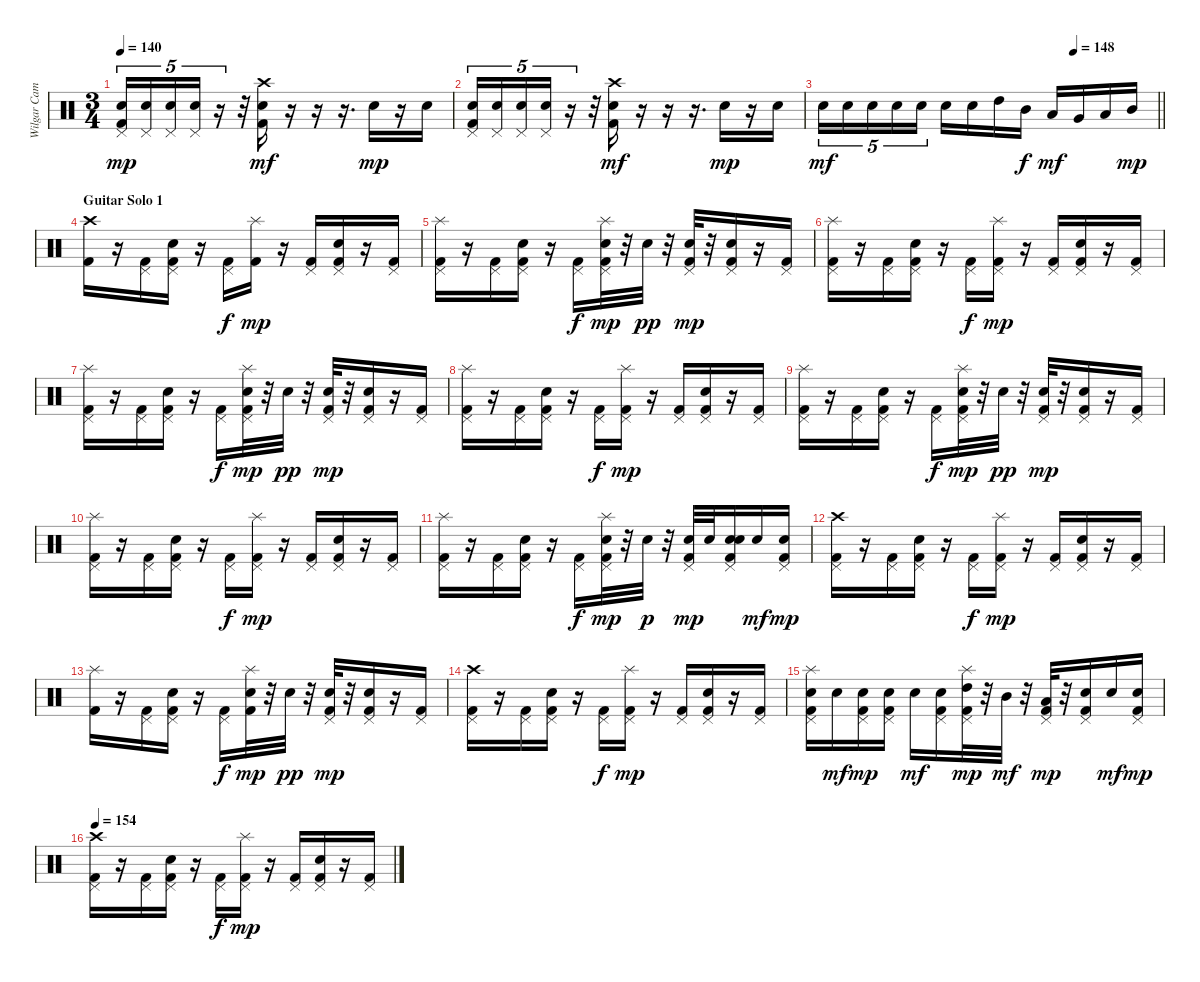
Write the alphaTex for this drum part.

\track ("Wilgar Campbell" "Wilgar Cam") {instrument percussion}
\staff {score}
\articulation defaults
\ts (3 4)
\tempo 140
\clef neutral
\ks c
("Snare (hit) 2" "Pedal Hi-Hat (hit)" "Kick (hit) 2").16{tu (5 4) dy mp} ("Snare (hit) 2" "Pedal Hi-Hat (hit)").16{tu (5 4)} ("Snare (hit) 2" "Pedal Hi-Hat (hit)").16{tu (5 4)} ("Snare (hit) 2" "Pedal Hi-Hat (hit)").16{tu (5 4)} r.16{tu (5 4)} r.32 ("Crash high (hit)" "Snare (hit) 2" "Kick (hit) 2").16{dy mf} r.16 r.16 r.16{d} "Electric Snare (hit)".16{dy mp} r.16 "Electric Snare (hit)".16 |
("Snare (hit) 2" "Pedal Hi-Hat (hit)" "Kick (hit) 2").16{tu (5 4)} ("Snare (hit) 2" "Pedal Hi-Hat (hit)").16{tu (5 4)} ("Snare (hit) 2" "Pedal Hi-Hat (hit)").16{tu (5 4)} ("Snare (hit) 2" "Pedal Hi-Hat (hit)").16{tu (5 4)} r.16{tu (5 4)} r.32 ("Crash high (hit)" "Snare (hit) 2" "Kick (hit) 2").16{dy mf} r.16 r.16 r.16{d} "Electric Snare (hit)".16{dy mp} r.16 "Electric Snare (hit)".16 |
\tempo (148 0.75)
\barLineRight lightlight "Snare (hit) 2".16{tu (5 4) dy mf} "Snare (hit) 2".16{tu (5 4)} "Snare (hit) 2".16{tu (5 4)} "Snare (hit) 2".16{tu (5 4)} "Snare (hit) 2".16{tu (5 4)} "Snare (hit) 2".16 "Snare (hit) 2".16 "High Tom (hit)".16 "Mid Tom (hit)".16{dy f} "Low Tom (hit)".16{dy mf} "Very Low Tom (hit)".16 "Low Floor Tom (hit)".16 "Mid Tom (hit)".16{dy mp}
|
\section ("" "Guitar Solo 1")
("Crash high (hit)" "Kick (hit) 2").16 r.16 ("Pedal Hi-Hat (hit)" "Kick (hit) 2").16 ("Snare (hit) 2" "Pedal Hi-Hat (hit)" "Kick (hit) 2").16 r.16 ("Pedal Hi-Hat (hit)" "Kick (hit) 2").16{dy f} ("Splash (hit)" "Kick (hit) 2").16{dy mp} r.16 ("Pedal Hi-Hat (hit)" "Kick (hit) 2").16 ("Snare (hit) 2" "Pedal Hi-Hat (hit)" "Kick (hit) 2").16 r.16 ("Pedal Hi-Hat (hit)" "Kick (hit) 2").16 |
("Splash (hit)" "Pedal Hi-Hat (hit)" "Kick (hit) 2").16 r.16 ("Pedal Hi-Hat (hit)" "Kick (hit) 2").16 ("Snare (hit) 2" "Pedal Hi-Hat (hit)" "Kick (hit) 2").16 r.16 ("Pedal Hi-Hat (hit)" "Kick (hit) 2").16{dy f} ("Splash (hit)" "Pedal Hi-Hat (hit)" "Electric Snare (hit)" "Kick (hit) 2").32{dy mp} r.32 "Electric Snare (hit)".32{dy pp} r.32 ("Pedal Hi-Hat (hit)" "Electric Snare (hit)" "Kick (hit) 2").32{dy mp} r.32 ("Snare (hit) 2" "Pedal Hi-Hat (hit)" "Kick (hit) 2").16 r.16 ("Pedal Hi-Hat (hit)" "Kick (hit) 2").16 |
("Splash (hit)" "Pedal Hi-Hat (hit)" "Kick (hit) 2").16 r.16 ("Pedal Hi-Hat (hit)" "Kick (hit) 2").16 ("Snare (hit) 2" "Pedal Hi-Hat (hit)" "Kick (hit) 2").16 r.16 ("Pedal Hi-Hat (hit)" "Kick (hit) 2").16{dy f} ("Splash (hit)" "Pedal Hi-Hat (hit)" "Kick (hit) 2").16{dy mp} r.16 ("Pedal Hi-Hat (hit)" "Kick (hit) 2").16 ("Snare (hit) 2" "Pedal Hi-Hat (hit)" "Kick (hit) 2").16 r.16 ("Pedal Hi-Hat (hit)" "Kick (hit) 2").16 |
("Splash (hit)" "Pedal Hi-Hat (hit)" "Kick (hit) 2").16 r.16 ("Pedal Hi-Hat (hit)" "Kick (hit) 2").16 ("Snare (hit) 2" "Pedal Hi-Hat (hit)" "Kick (hit) 2").16 r.16 ("Pedal Hi-Hat (hit)" "Kick (hit) 2").16{dy f} ("Splash (hit)" "Pedal Hi-Hat (hit)" "Electric Snare (hit)" "Kick (hit) 2").32{dy mp} r.32 "Electric Snare (hit)".32{dy pp} r.32 ("Pedal Hi-Hat (hit)" "Electric Snare (hit)" "Kick (hit) 2").32{dy mp} r.32 ("Snare (hit) 2" "Pedal Hi-Hat (hit)" "Kick (hit) 2").16 r.16 ("Pedal Hi-Hat (hit)" "Kick (hit) 2").16 |
("Splash (hit)" "Pedal Hi-Hat (hit)" "Kick (hit) 2").16 r.16 ("Pedal Hi-Hat (hit)" "Kick (hit) 2").16 ("Snare (hit) 2" "Pedal Hi-Hat (hit)" "Kick (hit) 2").16 r.16 ("Pedal Hi-Hat (hit)" "Kick (hit) 2").16{dy f} ("Splash (hit)" "Pedal Hi-Hat (hit)" "Kick (hit) 2").16{dy mp} r.16 ("Pedal Hi-Hat (hit)" "Kick (hit) 2").16 ("Snare (hit) 2" "Pedal Hi-Hat (hit)" "Kick (hit) 2").16 r.16 ("Pedal Hi-Hat (hit)" "Kick (hit) 2").16 |
("Splash (hit)" "Pedal Hi-Hat (hit)" "Kick (hit) 2").16 r.16 ("Pedal Hi-Hat (hit)" "Kick (hit) 2").16 ("Snare (hit) 2" "Pedal Hi-Hat (hit)" "Kick (hit) 2").16 r.16 ("Pedal Hi-Hat (hit)" "Kick (hit) 2").16{dy f} ("Splash (hit)" "Pedal Hi-Hat (hit)" "Electric Snare (hit)" "Kick (hit) 2").32{dy mp} r.32 "Electric Snare (hit)".32{dy pp} r.32 ("Pedal Hi-Hat (hit)" "Electric Snare (hit)" "Kick (hit) 2").32{dy mp} r.32 ("Snare (hit) 2" "Pedal Hi-Hat (hit)" "Kick (hit) 2").16 r.16 ("Pedal Hi-Hat (hit)" "Kick (hit) 2").16 |
("Splash (hit)" "Pedal Hi-Hat (hit)" "Kick (hit) 2").16 r.16 ("Pedal Hi-Hat (hit)" "Kick (hit) 2").16 ("Snare (hit) 2" "Pedal Hi-Hat (hit)" "Kick (hit) 2").16 r.16 ("Pedal Hi-Hat (hit)" "Kick (hit) 2").16{dy f} ("Splash (hit)" "Pedal Hi-Hat (hit)" "Kick (hit) 2").16{dy mp} r.16 ("Pedal Hi-Hat (hit)" "Kick (hit) 2").16 ("Snare (hit) 2" "Pedal Hi-Hat (hit)" "Kick (hit) 2").16 r.16 ("Pedal Hi-Hat (hit)" "Kick (hit) 2").16 |
("Splash (hit)" "Pedal Hi-Hat (hit)" "Kick (hit) 2").16 r.16 ("Pedal Hi-Hat (hit)" "Kick (hit) 2").16 ("Snare (hit) 2" "Pedal Hi-Hat (hit)" "Kick (hit) 2").16 r.16 ("Pedal Hi-Hat (hit)" "Kick (hit) 2").16{dy f} ("Splash (hit)" "Pedal Hi-Hat (hit)" "Electric Snare (hit)" "Kick (hit) 2").32{dy mp} r.32 "Electric Snare (hit)".32{dy p} r.32 ("Pedal Hi-Hat (hit)" "Electric Snare (hit)" "Kick (hit) 2").32{dy mp} "Electric Snare (hit)".32 ("Snare (hit) 2" "Pedal Hi-Hat (hit)" "Snare (hit) 2" "Kick (hit) 2").16 "Snare (hit) 2".16{dy mf} ("Pedal Hi-Hat (hit)" "Snare (hit) 2" "Kick (hit) 2").16{dy mp} |
("Crash high (hit)" "Pedal Hi-Hat (hit)" "Kick (hit) 2").16 r.16 ("Pedal Hi-Hat (hit)" "Kick (hit) 2").16 ("Snare (hit) 2" "Pedal Hi-Hat (hit)" "Kick (hit) 2").16 r.16 ("Pedal Hi-Hat (hit)" "Kick (hit) 2").16{dy f} ("Splash (hit)" "Pedal Hi-Hat (hit)" "Kick (hit) 2").16{dy mp} r.16 ("Pedal Hi-Hat (hit)" "Kick (hit) 2").16 ("Snare (hit) 2" "Pedal Hi-Hat (hit)" "Kick (hit) 2").16 r.16 ("Pedal Hi-Hat (hit)" "Kick (hit) 2").16 |
("Splash (hit)" "Kick (hit) 2").16 r.16 ("Pedal Hi-Hat (hit)" "Kick (hit) 2").16 ("Snare (hit) 2" "Pedal Hi-Hat (hit)" "Kick (hit) 2").16 r.16 ("Pedal Hi-Hat (hit)" "Kick (hit) 2").16{dy f} ("Splash (hit)" "Electric Snare (hit)" "Kick (hit) 2").32{dy mp} r.32 "Electric Snare (hit)".32{dy pp} r.32 ("Pedal Hi-Hat (hit)" "Electric Snare (hit)" "Kick (hit) 2").32{dy mp} r.32 ("Snare (hit) 2" "Pedal Hi-Hat (hit)" "Kick (hit) 2").16 r.16 ("Pedal Hi-Hat (hit)" "Kick (hit) 2").16 |
("Crash high (hit)" "Pedal Hi-Hat (hit)" "Kick (hit) 2").16 r.16 ("Pedal Hi-Hat (hit)" "Kick (hit) 2").16 ("Snare (hit) 2" "Pedal Hi-Hat (hit)" "Kick (hit) 2").16 r.16 ("Pedal Hi-Hat (hit)" "Kick (hit) 2").16{dy f} ("Splash (hit)" "Pedal Hi-Hat (hit)" "Kick (hit) 2").16{dy mp} r.16 ("Pedal Hi-Hat (hit)" "Kick (hit) 2").16 ("Snare (hit) 2" "Pedal Hi-Hat (hit)" "Kick (hit) 2").16 r.16 ("Pedal Hi-Hat (hit)" "Kick (hit) 2").16 |
("Splash (hit)" "Pedal Hi-Hat (hit)" "Snare (hit) 2" "Kick (hit) 2").16 "Snare (hit) 2".16{dy mf} ("Pedal Hi-Hat (hit)" "Snare (hit) 2" "Kick (hit) 2").16{dy mp} ("Pedal Hi-Hat (hit)" "Snare (hit) 2" "Kick (hit) 2").16 "Snare (hit) 2".16{dy mf} ("Pedal Hi-Hat (hit)" "Snare (hit) 2" "Kick (hit) 2").16 ("Splash (hit)" "Pedal Hi-Hat (hit)" "High Tom (hit)" "Kick (hit) 2").32{dy mp} r.32 "Mid Tom (hit)".32{dy mf} r.32 ("Pedal Hi-Hat (hit)" "Low Tom (hit)" "Kick (hit) 2").32{dy mp} r.32 ("Pedal Hi-Hat (hit)" "Snare (hit) 2" "Kick (hit) 2").16 "Snare (hit) 2".16{dy mf} ("Pedal Hi-Hat (hit)" "Snare (hit) 2" "Kick (hit) 2").16{dy mp} |
\tempo 154
("Crash high (hit)" "Pedal Hi-Hat (hit)" "Kick (hit) 2").16 r.16 ("Pedal Hi-Hat (hit)" "Kick (hit) 2").16 ("Snare (hit) 2" "Pedal Hi-Hat (hit)" "Kick (hit) 2").16 r.16 ("Pedal Hi-Hat (hit)" "Kick (hit) 2").16{dy f} ("Splash (hit)" "Pedal Hi-Hat (hit)" "Kick (hit) 2").16{dy mp} r.16 ("Pedal Hi-Hat (hit)" "Kick (hit) 2").16 ("Snare (hit) 2" "Pedal Hi-Hat (hit)" "Kick (hit) 2").16 r.16 ("Pedal Hi-Hat (hit)" "Kick (hit) 2").16
